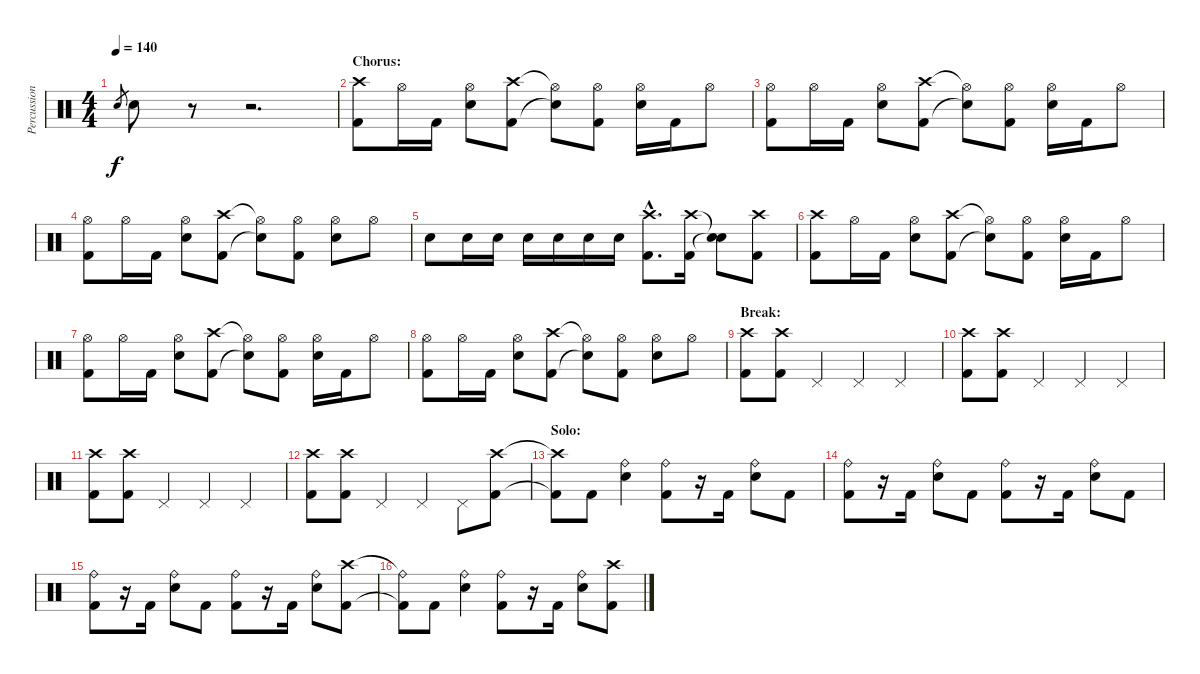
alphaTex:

\track ("Percussion" "Percussion") {instrument percussion}
\staff {score}
\articulation defaults
\ts (4 4)
\tempo 140
\clef neutral
\ks c "Snare (hit) 2".8{gr dy f} "Snare (hit) 2".8
r.8 r.2{d} |
\section ("" "Chorus:")
("Crash high (hit)" "Kick (hit) 2").8 "Hi-Hat (open)".16 "Kick (hit) 2".16 ("Hi-Hat (open)" "Snare (hit) 2").8 ("Crash high (hit)" "Kick (hit) 2").8 ("Hi-Hat (open)"{t} "Snare (hit)"{t}).8 ("Hi-Hat (open)" "Kick (hit) 2").8 ("Hi-Hat (open)" "Snare (hit) 2").16 "Kick (hit) 2".16 "Hi-Hat (open)".8 |
("Hi-Hat (open)" "Kick (hit) 2").8 "Hi-Hat (open)".16 "Kick (hit) 2".16 ("Hi-Hat (open)" "Snare (hit) 2").8 ("Crash high (hit)" "Kick (hit) 2").8 ("Hi-Hat (open)"{t} "Snare (hit)"{t}).8 ("Hi-Hat (open)" "Kick (hit) 2").8 ("Hi-Hat (open)" "Snare (hit) 2").16 "Kick (hit) 2".16 "Hi-Hat (open)".8 |
("Hi-Hat (open)" "Kick (hit) 2").8 "Hi-Hat (open)".16 "Kick (hit) 2".16 ("Hi-Hat (open)" "Snare (hit) 2").8 ("Crash high (hit)" "Kick (hit) 2").8 ("Hi-Hat (open)"{t} "Snare (hit)"{t}).8 ("Hi-Hat (open)" "Kick (hit) 2").8 ("Hi-Hat (open)" "Snare (hit) 2").8 "Hi-Hat (open)".8 |
"Snare (hit) 2".8 "Snare (hit) 2".16 "Snare (hit) 2".16 "Snare (hit) 2".16 "Snare (hit) 2".16 "Snare (hit) 2".16 "Snare (hit) 2".16 ("Crash high (hit)"{hac} "Kick (hit) 2"{hac}).8{d} ("Crash high (hit)" "Kick (hit) 2").16 ("Snare (hit)"{t} "Snare (hit)"{t}).8 ("Crash high (hit)" "Kick (hit) 2").8 |
("Crash high (hit)" "Kick (hit) 2").8 "Hi-Hat (open)".16 "Kick (hit) 2".16 ("Hi-Hat (open)" "Snare (hit) 2").8 ("Crash high (hit)" "Kick (hit) 2").8 ("Hi-Hat (open)"{t} "Snare (hit)"{t}).8 ("Hi-Hat (open)" "Kick (hit) 2").8 ("Hi-Hat (open)" "Snare (hit) 2").16 "Kick (hit) 2".16 "Hi-Hat (open)".8 |
("Hi-Hat (open)" "Kick (hit) 2").8 "Hi-Hat (open)".16 "Kick (hit) 2".16 ("Hi-Hat (open)" "Snare (hit) 2").8 ("Crash high (hit)" "Kick (hit) 2").8 ("Hi-Hat (open)"{t} "Snare (hit)"{t}).8 ("Hi-Hat (open)" "Kick (hit) 2").8 ("Hi-Hat (open)" "Snare (hit) 2").16 "Kick (hit) 2".16 "Hi-Hat (open)".8 |
("Hi-Hat (open)" "Kick (hit) 2").8 "Hi-Hat (open)".16 "Kick (hit) 2".16 ("Hi-Hat (open)" "Snare (hit) 2").8 ("Crash high (hit)" "Kick (hit) 2").8 ("Hi-Hat (open)"{t} "Snare (hit)"{t}).8 ("Hi-Hat (open)" "Kick (hit) 2").8 ("Hi-Hat (open)" "Snare (hit) 2").8 "Hi-Hat (open)".8 |
\section ("" "Break:")
("Crash high (hit)" "Kick (hit) 2").8 ("Crash high (hit)" "Kick (hit) 2").8 "Pedal Hi-Hat (hit)".4 "Pedal Hi-Hat (hit)".4 "Pedal Hi-Hat (hit)".4 |
("Crash high (hit)" "Kick (hit) 2").8 ("Crash high (hit)" "Kick (hit) 2").8 "Pedal Hi-Hat (hit)".4 "Pedal Hi-Hat (hit)".4 "Pedal Hi-Hat (hit)".4 |
("Crash high (hit)" "Kick (hit) 2").8 ("Crash high (hit)" "Kick (hit) 2").8 "Pedal Hi-Hat (hit)".4 "Pedal Hi-Hat (hit)".4 "Pedal Hi-Hat (hit)".4 |
("Crash high (hit)" "Kick (hit) 2").8 ("Crash high (hit)" "Kick (hit) 2").8 "Pedal Hi-Hat (hit)".4 "Pedal Hi-Hat (hit)".4 "Pedal Hi-Hat (hit)".8 ("Crash high (hit)" "Kick (hit) 2").8 |
\section ("" "Solo:")
("Crash high (hit)"{t} "Kick (hit) 2"{t}).8 "Kick (hit) 2".8 ("Ride (bell)" "Snare (hit) 2").4 ("Ride (bell)" "Kick (hit) 2").8 r.16 "Kick (hit) 2".16 ("Ride (bell)" "Snare (hit) 2").8 "Kick (hit) 2".8 |
("Ride (bell)" "Kick (hit) 2").8 r.16 "Kick (hit) 2".16 ("Ride (bell)" "Snare (hit) 2").8 "Kick (hit) 2".8 ("Ride (bell)" "Kick (hit) 2").8 r.16 "Kick (hit) 2".16 ("Ride (bell)" "Snare (hit) 2").8 "Kick (hit) 2".8 |
("Ride (bell)" "Kick (hit) 2").8 r.16 "Kick (hit) 2".16 ("Ride (bell)" "Snare (hit) 2").8 "Kick (hit) 2".8 ("Ride (bell)" "Kick (hit) 2").8 r.16 "Kick (hit) 2".16 ("Ride (bell)" "Snare (hit) 2").8 ("Crash high (hit)" "Kick (hit) 2").8 |
("Ride (bell)"{t} "Kick (hit) 2"{t}).8 "Kick (hit) 2".8 ("Ride (bell)" "Snare (hit) 2").4 ("Ride (bell)" "Kick (hit) 2").8 r.16 "Kick (hit) 2".16 ("Ride (bell)" "Snare (hit) 2").8 ("Crash high (hit)" "Kick (hit) 2").8
